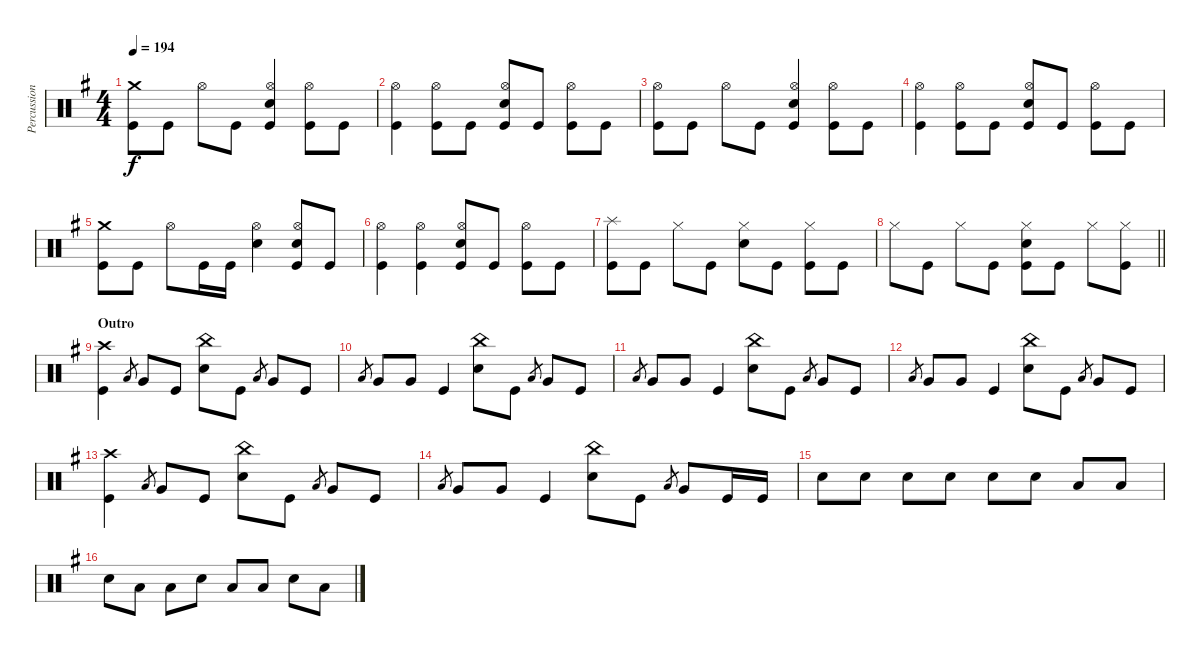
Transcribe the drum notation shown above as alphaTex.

\track ("Percussion" "Percussion") {instrument percussion}
\staff {score}
\articulation defaults
\ts (4 4)
\tempo 194
\clef neutral
\ks g
("Crash medium (hit)" "Kick (hit)").8{dy f} "Kick (hit)".8 "Hi-Hat (open)".8 "Kick (hit)".8 ("Hi-Hat (open)" "Electric Snare (hit)" "Kick (hit)").4 ("Hi-Hat (open)" "Kick (hit)").8 "Kick (hit)".8 |
("Hi-Hat (open)" "Kick (hit)").4 ("Hi-Hat (open)" "Kick (hit)").8 "Kick (hit)".8 ("Hi-Hat (open)" "Electric Snare (hit)" "Kick (hit)").8 "Kick (hit)".8 ("Hi-Hat (open)" "Kick (hit)").8 "Kick (hit)".8 |
("Hi-Hat (open)" "Kick (hit)").8 "Kick (hit)".8 "Hi-Hat (open)".8 "Kick (hit)".8 ("Hi-Hat (open)" "Electric Snare (hit)" "Kick (hit)").4 ("Hi-Hat (open)" "Kick (hit)").8 "Kick (hit)".8 |
("Hi-Hat (open)" "Kick (hit)").4 ("Hi-Hat (open)" "Kick (hit)").8 "Kick (hit)".8 ("Hi-Hat (open)" "Electric Snare (hit)" "Kick (hit)").8 "Kick (hit)".8 ("Hi-Hat (open)" "Kick (hit)").8 "Kick (hit)".8 |
("Crash medium (hit)" "Kick (hit)").8 "Kick (hit)".8 "Hi-Hat (open)".8 "Kick (hit)".16 "Kick (hit)".16 ("Hi-Hat (open)" "Electric Snare (hit)").4 ("Hi-Hat (open)" "Electric Snare (hit)" "Kick (hit)").8 "Kick (hit)".8 |
("Hi-Hat (open)" "Kick (hit)").4 ("Hi-Hat (open)" "Kick (hit)").4 ("Hi-Hat (open)" "Electric Snare (hit)" "Kick (hit)").8 "Kick (hit)".8 ("Hi-Hat (open)" "Kick (hit)").8 "Kick (hit)".8 |
("Splash (hit)" "Kick (hit)").8 "Kick (hit)".8 "Hi-Hat (closed)".8 "Kick (hit)".8 ("Hi-Hat (closed)" "Electric Snare (hit)").8 "Kick (hit)".8 ("Hi-Hat (closed)" "Kick (hit)").8 "Kick (hit)".8 |
\barLineRight lightlight "Hi-Hat (closed)".8 "Kick (hit)".8 "Hi-Hat (closed)".8 "Kick (hit)".8
("Hi-Hat (closed)" "Electric Snare (hit)" "Kick (hit)").8 "Kick (hit)".8 "Hi-Hat (closed)".8 ("Hi-Hat (closed)" "Kick (hit)").8 |
\section ("" "Outro")
("Crash high (hit)" "Kick (hit)").4 "Low Tom (hit)".8{gr} "Very Low Tom (hit)".8 "Kick (hit)".8 ("China (hit)" "Electric Snare (hit)").8 "Kick (hit)".8 "Low Tom (hit)".8{gr} "Very Low Tom (hit)".8 "Kick (hit)".8 |
"Low Tom (hit)".8{gr} "Very Low Tom (hit)".8 "Very Low Tom (hit)".8 "Kick (hit)".4 ("China (hit)" "Electric Snare (hit)").8 "Kick (hit)".8 "Low Tom (hit)".8{gr} "Very Low Tom (hit)".8 "Kick (hit)".8 |
"Low Tom (hit)".8{gr} "Very Low Tom (hit)".8 "Very Low Tom (hit)".8 "Kick (hit)".4 ("China (hit)" "Electric Snare (hit)").8 "Kick (hit)".8 "Low Tom (hit)".8{gr} "Very Low Tom (hit)".8 "Kick (hit)".8 |
"Low Tom (hit)".8{gr} "Very Low Tom (hit)".8 "Very Low Tom (hit)".8 "Kick (hit)".4 ("China (hit)" "Electric Snare (hit)").8 "Kick (hit)".8 "Low Tom (hit)".8{gr} "Very Low Tom (hit)".8 "Kick (hit)".8 |
("Crash high (hit)" "Kick (hit)").4 "Low Tom (hit)".8{gr} "Very Low Tom (hit)".8 "Kick (hit)".8 ("China (hit)" "Electric Snare (hit)").8 "Kick (hit)".8 "Low Tom (hit)".8{gr} "Very Low Tom (hit)".8 "Kick (hit)".8 |
"Low Tom (hit)".8{gr} "Very Low Tom (hit)".8 "Very Low Tom (hit)".8 "Kick (hit)".4 ("China (hit)" "Electric Snare (hit)").8 "Kick (hit)".8 "Low Tom (hit)".8{gr} "Very Low Tom (hit)".8 "Kick (hit)".16 "Kick (hit)".16 |
"Electric Snare (hit)".8 "Electric Snare (hit)".8 "Electric Snare (hit)".8 "Electric Snare (hit)".8 "Electric Snare (hit)".8 "Electric Snare (hit)".8 "Low Tom (hit)".8 "Low Tom (hit)".8 |
"Electric Snare (hit)".8 "Low Tom (hit)".8 "Low Tom (hit)".8 "Electric Snare (hit)".8 "Low Tom (hit)".8 "Low Tom (hit)".8 "Electric Snare (hit)".8 "Low Tom (hit)".8
